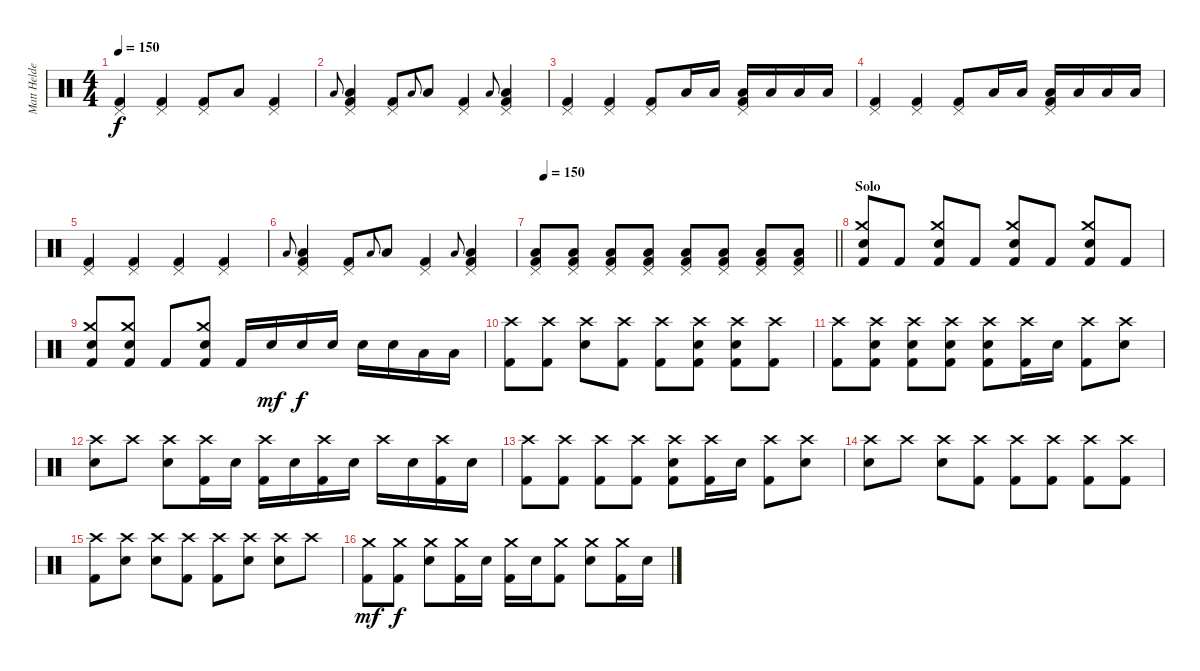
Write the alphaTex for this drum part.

\track ("Matt Helders - Drums MIDI" "Matt Helde") {instrument percussion}
\staff {score}
\articulation defaults
\ts (4 4)
\tempo 150
\clef neutral
\ks c
("Pedal Hi-Hat (hit)" "Kick (hit) 2").4{dy f} ("Pedal Hi-Hat (hit)" "Kick (hit) 2").4 ("Pedal Hi-Hat (hit)" "Kick (hit) 2").8 "Low Tom (hit)".8 ("Pedal Hi-Hat (hit)" "Kick (hit) 2").4 |
"Low Tom (hit)".8{gr onbeat} ("Pedal Hi-Hat (hit)" "Low Tom (hit)" "Kick (hit) 2").4 ("Pedal Hi-Hat (hit)" "Kick (hit) 2").8 "Low Tom (hit)".8{gr onbeat} "Low Tom (hit)".8 ("Pedal Hi-Hat (hit)" "Kick (hit) 2").4 "Low Tom (hit)".8{gr onbeat} ("Pedal Hi-Hat (hit)" "Low Tom (hit)" "Kick (hit) 2").4 |
("Pedal Hi-Hat (hit)" "Kick (hit) 2").4 ("Pedal Hi-Hat (hit)" "Kick (hit) 2").4 ("Pedal Hi-Hat (hit)" "Kick (hit) 2").8 "Low Tom (hit)".16 "Low Tom (hit)".16 ("Pedal Hi-Hat (hit)" "Low Tom (hit)" "Kick (hit) 2").16 "Low Tom (hit)".16 "Low Tom (hit)".16 "Low Tom (hit)".16 |
("Pedal Hi-Hat (hit)" "Kick (hit) 2").4 ("Pedal Hi-Hat (hit)" "Kick (hit) 2").4 ("Pedal Hi-Hat (hit)" "Kick (hit) 2").8 "Low Floor Tom (hit)".16 "Low Floor Tom (hit)".16 ("Pedal Hi-Hat (hit)" "Low Floor Tom (hit)" "Kick (hit) 2").16 "Low Floor Tom (hit)".16 "Low Floor Tom (hit)".16 "Low Floor Tom (hit)".16 |
("Pedal Hi-Hat (hit)" "Kick (hit) 2").4 ("Pedal Hi-Hat (hit)" "Kick (hit) 2").4 ("Pedal Hi-Hat (hit)" "Kick (hit) 2").4 ("Pedal Hi-Hat (hit)" "Kick (hit) 2").4 |
"Low Tom (hit)".8{gr onbeat} ("Pedal Hi-Hat (hit)" "Low Tom (hit)" "Kick (hit) 2").4 ("Pedal Hi-Hat (hit)" "Kick (hit) 2").8 "Low Tom (hit)".8{gr onbeat} "Low Tom (hit)".8 ("Pedal Hi-Hat (hit)" "Kick (hit) 2").4 "Low Tom (hit)".8{gr onbeat} ("Pedal Hi-Hat (hit)" "Low Tom (hit)" "Kick (hit) 2").4 |
\tempo (150 0.03125)
\barLineRight lightlight
("Pedal Hi-Hat (hit)" "Low Floor Tom (hit)" "Kick (hit) 2").8 ("Pedal Hi-Hat (hit)" "Low Floor Tom (hit)" "Kick (hit) 2").8 ("Pedal Hi-Hat (hit)" "Low Floor Tom (hit)" "Kick (hit) 2").8 ("Pedal Hi-Hat (hit)" "Low Floor Tom (hit)" "Kick (hit) 2").8 ("Pedal Hi-Hat (hit)" "Low Floor Tom (hit)" "Kick (hit) 2").8 ("Pedal Hi-Hat (hit)" "Low Floor Tom (hit)" "Kick (hit) 2").8 ("Pedal Hi-Hat (hit)" "Low Floor Tom (hit)" "Kick (hit) 2").8 ("Pedal Hi-Hat (hit)" "Low Floor Tom (hit)" "Kick (hit) 2").8 |
\section ("" "Solo")
("Crash medium (hit)" "Snare (hit) 2" "Kick (hit) 2").8 "Kick (hit) 2".8 ("Crash medium (hit)" "Snare (hit) 2" "Kick (hit) 2").8 "Kick (hit) 2".8 ("Crash medium (hit)" "Snare (hit) 2" "Kick (hit) 2").8 "Kick (hit) 2".8 ("Crash medium (hit)" "Snare (hit) 2" "Kick (hit) 2").8 "Kick (hit) 2".8 |
("Crash medium (hit)" "Snare (hit) 2" "Kick (hit) 2").8 ("Crash medium (hit)" "Snare (hit) 2" "Kick (hit) 2").8 "Kick (hit) 2".8 ("Crash medium (hit)" "Snare (hit) 2" "Kick (hit) 2").8 "Kick (hit) 2".16 "Snare (hit) 2".16{dy mf} "Snare (hit) 2".16{dy f} "Snare (hit) 2".16 "Snare (hit) 2".16 "Snare (hit) 2".16 "Low Tom (hit)".16 "Low Tom (hit)".16 |
("Crash high (hit)" "Kick (hit) 2").8 ("Crash high (hit)" "Kick (hit) 2").8 ("Crash high (hit)" "Snare (hit) 2").8 ("Crash high (hit)" "Kick (hit) 2").8 ("Crash high (hit)" "Kick (hit) 2").8 ("Crash high (hit)" "Snare (hit) 2" "Kick (hit) 2").8 ("Crash high (hit)" "Snare (hit) 2" "Kick (hit) 2").8 ("Crash high (hit)" "Kick (hit) 2").8 |
("Crash high (hit)" "Kick (hit) 2").8 ("Crash high (hit)" "Snare (hit) 2" "Kick (hit) 2").8 ("Crash high (hit)" "Snare (hit) 2" "Kick (hit) 2").8 ("Crash high (hit)" "Snare (hit) 2" "Kick (hit) 2").8 ("Crash high (hit)" "Snare (hit) 2" "Kick (hit) 2").8 ("Crash high (hit)" "Kick (hit) 2").16 "Snare (hit) 2".16 ("Crash high (hit)" "Kick (hit) 2").8 ("Crash high (hit)" "Snare (hit) 2").8 |
("Crash high (hit)" "Snare (hit) 2").8 "Crash high (hit)".8 ("Crash high (hit)" "Snare (hit) 2").8 ("Crash high (hit)" "Kick (hit) 2").16 "Snare (hit) 2".16 ("Crash high (hit)" "Kick (hit) 2").16 "Snare (hit) 2".16 ("Crash high (hit)" "Kick (hit) 2").16 "Snare (hit) 2".16 "Crash high (hit)".16 "Snare (hit) 2".16 ("Crash high (hit)" "Kick (hit) 2").16 "Snare (hit) 2".16 |
("Crash high (hit)" "Kick (hit) 2").8 ("Crash high (hit)" "Kick (hit) 2").8 ("Crash high (hit)" "Kick (hit) 2").8 ("Crash high (hit)" "Kick (hit) 2").8 ("Crash high (hit)" "Snare (hit) 2" "Kick (hit) 2").8 ("Crash high (hit)" "Kick (hit) 2").16 "Snare (hit) 2".16 ("Crash high (hit)" "Kick (hit) 2").8 ("Crash high (hit)" "Snare (hit) 2").8 |
("Crash high (hit)" "Snare (hit) 2").8 "Crash high (hit)".8 ("Crash high (hit)" "Snare (hit) 2").8 ("Crash high (hit)" "Kick (hit) 2").8 ("Crash high (hit)" "Kick (hit) 2").8 ("Crash high (hit)" "Kick (hit) 2").8 ("Crash high (hit)" "Kick (hit) 2").8 ("Crash high (hit)" "Kick (hit) 2").8 |
("Crash high (hit)" "Kick (hit) 2").8 ("Crash high (hit)" "Snare (hit) 2").8 ("Crash high (hit)" "Snare (hit) 2").8 ("Crash high (hit)" "Kick (hit) 2").8 ("Crash high (hit)" "Kick (hit) 2").8 ("Crash high (hit)" "Snare (hit) 2").8 ("Crash high (hit)" "Snare (hit) 2").8 "Crash high (hit)".8 |
("Crash medium (hit)" "Kick (hit) 2").8{dy mf} ("Crash medium (hit)" "Kick (hit) 2").8{dy f} ("Crash medium (hit)" "Snare (hit) 2").8 ("Crash medium (hit)" "Kick (hit) 2").16 "Snare (hit) 2".16 ("Crash medium (hit)" "Kick (hit) 2").16 "Snare (hit) 2".16 ("Crash medium (hit)" "Kick (hit) 2").8 ("Crash medium (hit)" "Snare (hit) 2").8 ("Crash medium (hit)" "Kick (hit) 2").16 "Snare (hit) 2".16
